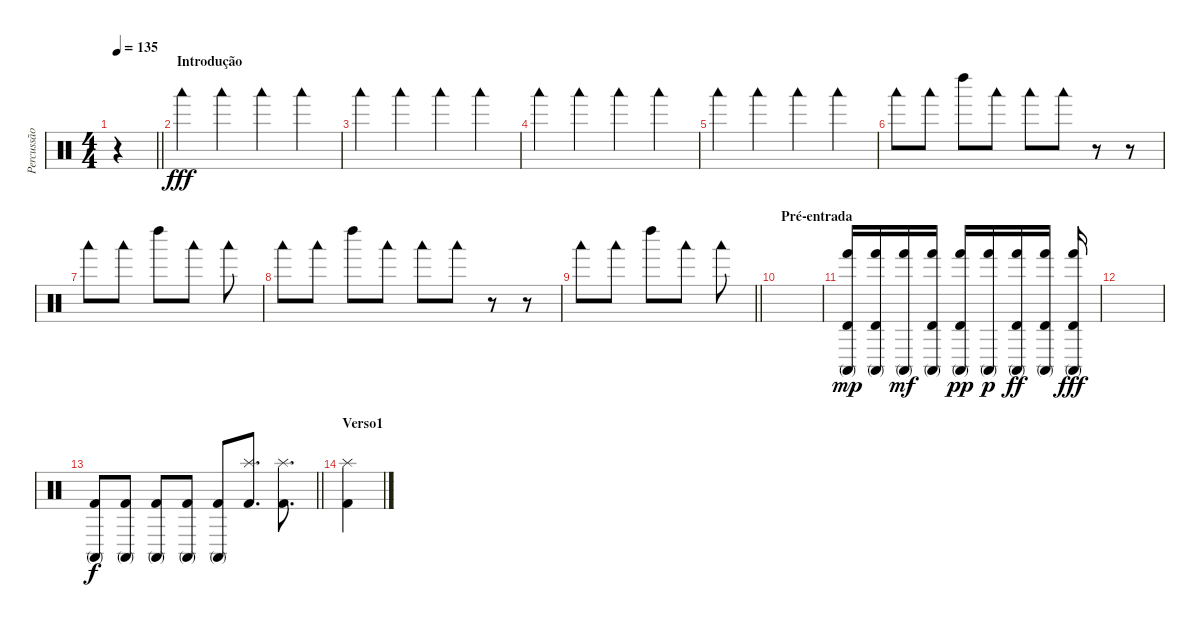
\track ("Percussão" "Percussão") {instrument percussion}
\staff {score}
\articulation defaults
\ts (4 4)
\tempo 135
\clef neutral
\barLineRight lightlight
\ks c
r.4{dy fff} |
\section ("" "Introdução")
"Woodblock low (hit)".4 "Woodblock low (hit)".4 "Woodblock low (hit)".4 "Woodblock low (hit)".4 |
"Woodblock low (hit)".4 "Woodblock low (hit)".4 "Woodblock low (hit)".4 "Woodblock low (hit)".4 |
"Woodblock low (hit)".4 "Woodblock low (hit)".4 "Woodblock low (hit)".4 "Woodblock low (hit)".4 |
"Woodblock low (hit)".4 "Woodblock low (hit)".4 "Woodblock low (hit)".4 "Woodblock low (hit)".4 |
"Woodblock low (hit)".8 "Woodblock low (hit)".8 "Left Maraca (hit)".8 "Woodblock low (hit)".8 "Woodblock low (hit)".8 "Woodblock low (hit)".8 r.8 r.8 |
"Woodblock low (hit)".8 "Woodblock low (hit)".8 "Left Maraca (hit)".8 "Woodblock low (hit)".8 "Woodblock low (hit)".8 |
"Woodblock low (hit)".8 "Woodblock low (hit)".8 "Left Maraca (hit)".8 "Woodblock low (hit)".8 "Woodblock low (hit)".8 "Woodblock low (hit)".8 r.8 r.8 |
\barLineRight lightlight "Woodblock low (hit)".8 "Woodblock low (hit)".8 "Left Maraca (hit)".8 "Woodblock low (hit)".8 "Woodblock low (hit)".8
|
\section ("" "Pré-entrada")
|
("Hand (hit)" "Timbale high (hit)" "Conga high (mute)").16{dy mp} ("Hand (hit)" "Timbale high (hit)" "Conga high (mute)").16 ("Hand (hit)" "Conga high (mute)").16{dy mf} ("Hand (hit)" "Timbale high (hit)" "Conga high (mute)").16 ("Hand (hit)" "Timbale high (hit)" "Conga high (mute)").16{dy pp} ("Hand (hit)" "Conga high (mute)").16{dy p} ("Hand (hit)" "Timbale high (hit)" "Conga high (mute)").16{dy ff} ("Hand (hit)" "Timbale high (hit)" "Conga high (mute)").16 ("Hand (hit)" "Timbale high (hit)" "Conga high (mute)").16{dy fff} |
|
\barLineRight lightlight
("Kick (hit) 2" "Conga high (mute)").8{dy f} ("Kick (hit) 2" "Conga high (mute)").8 ("Kick (hit) 2" "Conga high (mute)").8 ("Kick (hit) 2" "Conga high (mute)").8 ("Kick (hit) 2" "Conga high (mute)").8 ("Kick (hit) 2" "Splash (hit)").8{d} ("Kick (hit) 2" "Splash (hit)").8{d} |
\section ("" "Verso1")
("Kick (hit) 2" "Splash (hit)").4
